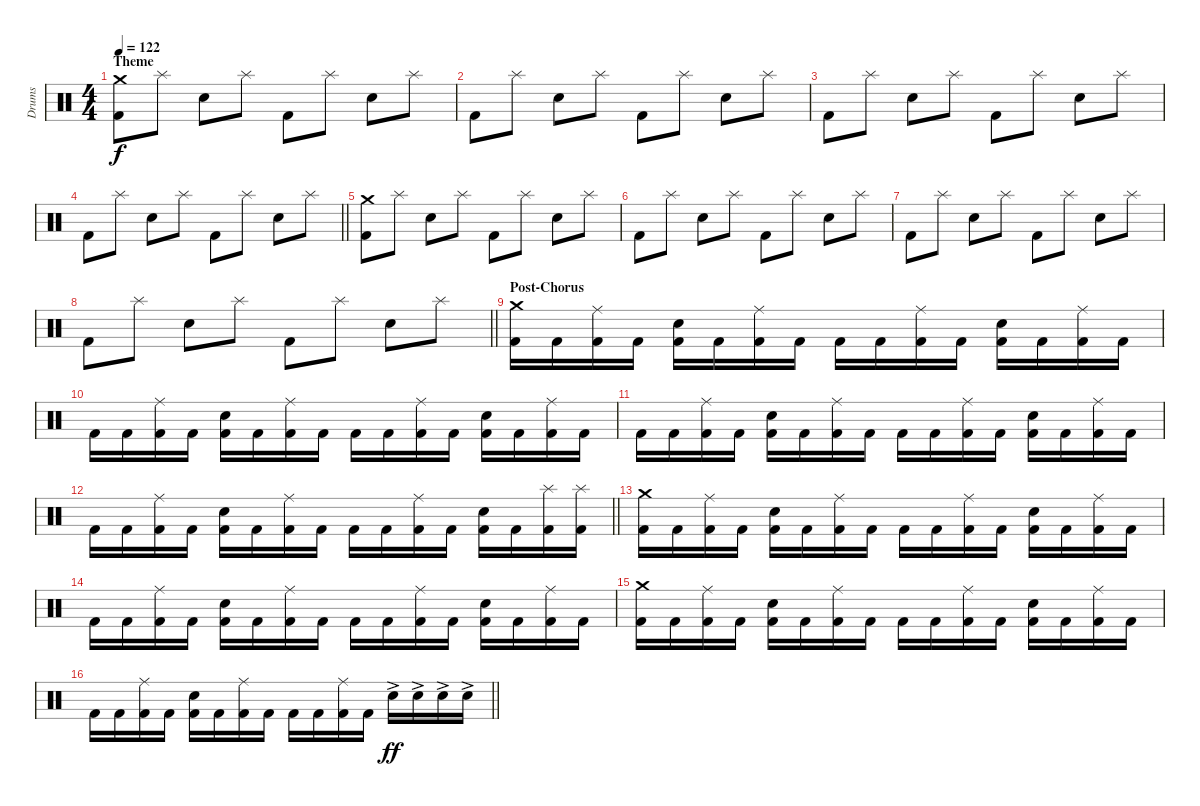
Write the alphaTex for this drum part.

\track ("Drums" "Drums") {instrument percussion}
\staff {score}
\articulation defaults
\ts (4 4)
\section ("" "Theme")
\tempo 122
\clef neutral
\ks c
("Kick (hit) 2" "Crash medium (hit)").8{dy f} "Splash (hit)".8 "Snare (hit) 2".8 "Splash (hit)".8 "Kick (hit) 2".8 "Splash (hit)".8 "Snare (hit) 2".8 "Splash (hit)".8 |
"Kick (hit) 2".8 "Splash (hit)".8 "Snare (hit) 2".8 "Splash (hit)".8 "Kick (hit) 2".8 "Splash (hit)".8 "Snare (hit) 2".8 "Splash (hit)".8 |
"Kick (hit) 2".8 "Splash (hit)".8 "Snare (hit) 2".8 "Splash (hit)".8 "Kick (hit) 2".8 "Splash (hit)".8 "Snare (hit) 2".8 "Splash (hit)".8 |
\barLineRight lightlight "Kick (hit) 2".8 "Splash (hit)".8 "Snare (hit) 2".8 "Splash (hit)".8 "Kick (hit) 2".8 "Splash (hit)".8 "Snare (hit) 2".8 "Splash (hit)".8
|
\section ("" "")
("Kick (hit) 2" "Crash medium (hit)").8 "Splash (hit)".8 "Snare (hit) 2".8 "Splash (hit)".8 "Kick (hit) 2".8 "Splash (hit)".8 "Snare (hit) 2".8 "Splash (hit)".8 |
"Kick (hit) 2".8 "Splash (hit)".8 "Snare (hit) 2".8 "Splash (hit)".8 "Kick (hit) 2".8 "Splash (hit)".8 "Snare (hit) 2".8 "Splash (hit)".8 |
"Kick (hit) 2".8 "Splash (hit)".8 "Snare (hit) 2".8 "Splash (hit)".8 "Kick (hit) 2".8 "Splash (hit)".8 "Snare (hit) 2".8 "Splash (hit)".8 |
\barLineRight lightlight "Kick (hit) 2".8 "Splash (hit)".8 "Snare (hit) 2".8 "Splash (hit)".8 "Kick (hit) 2".8 "Splash (hit)".8 "Snare (hit) 2".8 "Splash (hit)".8
|
\section ("" "Post-Chorus")
("Kick (hit) 2" "Crash medium (hit)").16 "Kick (hit) 2".16 ("Kick (hit) 2" "Ride (middle)").16 "Kick (hit) 2".16 ("Kick (hit) 2" "Snare (hit) 2").16 "Kick (hit) 2".16 ("Kick (hit) 2" "Ride (middle)").16 "Kick (hit) 2".16 "Kick (hit) 2".16 "Kick (hit) 2".16 ("Kick (hit) 2" "Ride (middle)").16 "Kick (hit) 2".16 ("Kick (hit) 2" "Snare (hit) 2").16 "Kick (hit) 2".16 ("Kick (hit) 2" "Ride (middle)").16 "Kick (hit) 2".16 |
"Kick (hit) 2".16 "Kick (hit) 2".16 ("Kick (hit) 2" "Ride (middle)").16 "Kick (hit) 2".16 ("Kick (hit) 2" "Snare (hit) 2").16 "Kick (hit) 2".16 ("Kick (hit) 2" "Ride (middle)").16 "Kick (hit) 2".16 "Kick (hit) 2".16 "Kick (hit) 2".16 ("Kick (hit) 2" "Ride (middle)").16 "Kick (hit) 2".16 ("Kick (hit) 2" "Snare (hit) 2").16 "Kick (hit) 2".16 ("Kick (hit) 2" "Ride (middle)").16 "Kick (hit) 2".16 |
"Kick (hit) 2".16 "Kick (hit) 2".16 ("Kick (hit) 2" "Ride (middle)").16 "Kick (hit) 2".16 ("Kick (hit) 2" "Snare (hit) 2").16 "Kick (hit) 2".16 ("Kick (hit) 2" "Ride (middle)").16 "Kick (hit) 2".16 "Kick (hit) 2".16 "Kick (hit) 2".16 ("Kick (hit) 2" "Ride (middle)").16 "Kick (hit) 2".16 ("Kick (hit) 2" "Snare (hit) 2").16 "Kick (hit) 2".16 ("Kick (hit) 2" "Ride (middle)").16 "Kick (hit) 2".16 |
\barLineRight lightlight "Kick (hit) 2".16 "Kick (hit) 2".16
("Kick (hit) 2" "Ride (middle)").16 "Kick (hit) 2".16 ("Kick (hit) 2" "Snare (hit) 2").16 "Kick (hit) 2".16 ("Kick (hit) 2" "Ride (middle)").16 "Kick (hit) 2".16 "Kick (hit) 2".16 "Kick (hit) 2".16 ("Kick (hit) 2" "Ride (middle)").16 "Kick (hit) 2".16 ("Kick (hit) 2" "Snare (hit) 2").16 "Kick (hit) 2".16 ("Kick (hit) 2" "Splash (hit)").16 ("Kick (hit) 2" "Splash (hit)").16 |
\section ("" "")
("Kick (hit) 2" "Crash medium (hit)").16 "Kick (hit) 2".16 ("Kick (hit) 2" "Ride (middle)").16 "Kick (hit) 2".16 ("Kick (hit) 2" "Snare (hit) 2").16 "Kick (hit) 2".16 ("Kick (hit) 2" "Ride (middle)").16 "Kick (hit) 2".16 "Kick (hit) 2".16 "Kick (hit) 2".16 ("Kick (hit) 2" "Ride (middle)").16 "Kick (hit) 2".16 ("Kick (hit) 2" "Snare (hit) 2").16 "Kick (hit) 2".16 ("Kick (hit) 2" "Ride (middle)").16 "Kick (hit) 2".16 |
"Kick (hit) 2".16 "Kick (hit) 2".16 ("Kick (hit) 2" "Ride (middle)").16 "Kick (hit) 2".16 ("Kick (hit) 2" "Snare (hit) 2").16 "Kick (hit) 2".16 ("Kick (hit) 2" "Ride (middle)").16 "Kick (hit) 2".16 "Kick (hit) 2".16 "Kick (hit) 2".16 ("Kick (hit) 2" "Ride (middle)").16 "Kick (hit) 2".16 ("Kick (hit) 2" "Snare (hit) 2").16 "Kick (hit) 2".16 ("Kick (hit) 2" "Ride (middle)").16 "Kick (hit) 2".16 |
("Kick (hit) 2" "Crash medium (hit)").16 "Kick (hit) 2".16 ("Kick (hit) 2" "Ride (middle)").16 "Kick (hit) 2".16 ("Kick (hit) 2" "Snare (hit) 2").16 "Kick (hit) 2".16 ("Kick (hit) 2" "Ride (middle)").16 "Kick (hit) 2".16 "Kick (hit) 2".16 "Kick (hit) 2".16 ("Kick (hit) 2" "Ride (middle)").16 "Kick (hit) 2".16 ("Kick (hit) 2" "Snare (hit) 2").16 "Kick (hit) 2".16 ("Kick (hit) 2" "Ride (middle)").16 "Kick (hit) 2".16 |
\barLineRight lightlight "Kick (hit) 2".16 "Kick (hit) 2".16
("Kick (hit) 2" "Ride (middle)").16 "Kick (hit) 2".16 ("Kick (hit) 2" "Snare (hit) 2").16 "Kick (hit) 2".16 ("Kick (hit) 2" "Ride (middle)").16 "Kick (hit) 2".16 "Kick (hit) 2".16 "Kick (hit) 2".16 ("Kick (hit) 2" "Ride (middle)").16 "Kick (hit) 2".16 "Snare (hit) 2"{ac}.16{dy ff} "Snare (hit) 2"{ac}.16 "Snare (hit) 2"{ac}.16 "Snare (hit) 2"{ac}.16
